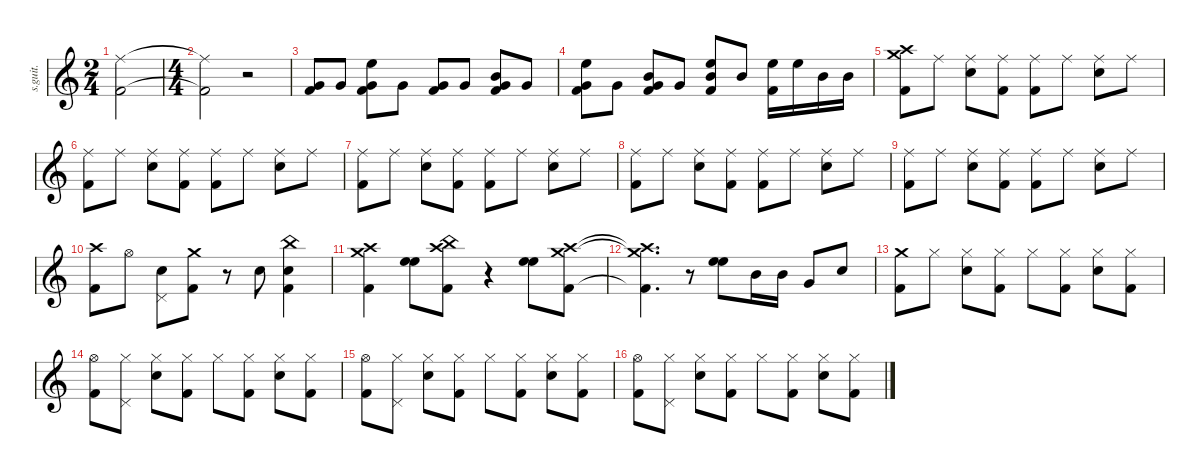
\defaultSystemsLayout 4
\hideDynamics
\bracketExtendMode nobrackets
\track ("Jim Gordon (Drums)" "s.guit.") {instrument percussion}
\staff {score}
\articulation defaults
\ts (2 4)
\beaming (8 2 2 2 2)
\tempo (107 hide)
\clef g2
\ks c
("Kick (hit) 2" "Ride (middle)").2{dy mp} |
\ts (4 4)
\beaming (8 2 2 2 2)
("Kick (hit) 2"{t} "Ride (middle)"{t}).2 r.2 |
("Very Low Tom (hit)" "Kick (hit) 2").8 "Very Low Tom (hit)".8 ("Very Low Tom (hit)" "High Floor Tom (hit)" "Kick (hit) 2").8 "Very Low Tom (hit)".8 ("Very Low Tom (hit)" "Kick (hit) 2").8 "Very Low Tom (hit)".8 ("Very Low Tom (hit)" "Mid Tom (hit)" "Kick (hit) 2").8 "Very Low Tom (hit)".8 |
("Very Low Tom (hit)" "High Floor Tom (hit)" "Kick (hit) 2").8 "Very Low Tom (hit)".8 ("Very Low Tom (hit)" "Mid Tom (hit)" "Kick (hit) 2").8 "Very Low Tom (hit)".8 ("Mid Tom (hit)" "High Floor Tom (hit)" "Kick (hit) 2").8 "Mid Tom (hit)".8 ("High Floor Tom (hit)" "Kick (hit) 2").16 "High Floor Tom (hit)".16 "Mid Tom (hit)".16 "Mid Tom (hit)".16 |
("Crash high (hit)" "Crash medium (hit)" "Kick (hit) 2").8 "Ride (middle)".8 ("Snare (hit) 2" "Ride (middle)").8 ("Kick (hit) 2" "Ride (middle)").8 ("Ride (middle)" "Kick (hit) 2").8 "Ride (middle)".8 ("Snare (hit) 2" "Ride (middle)").8 "Ride (middle)".8 |
("Ride (middle)" "Kick (hit) 2").8 "Ride (middle)".8 ("Snare (hit) 2" "Ride (middle)").8 ("Kick (hit) 2" "Ride (middle)").8 ("Ride (middle)" "Kick (hit) 2").8 "Ride (middle)".8 ("Snare (hit) 2" "Ride (middle)").8 "Ride (middle)".8 |
("Ride (middle)" "Kick (hit) 2").8 "Ride (middle)".8 ("Snare (hit) 2" "Ride (middle)").8 ("Kick (hit) 2" "Ride (middle)").8 ("Ride (middle)" "Kick (hit) 2").8 "Ride (middle)".8 ("Snare (hit) 2" "Ride (middle)").8 "Ride (middle)".8 |
("Ride (middle)" "Kick (hit) 2").8 "Ride (middle)".8 ("Snare (hit) 2" "Ride (middle)").8 ("Kick (hit) 2" "Ride (middle)").8 ("Ride (middle)" "Kick (hit) 2").8 "Ride (middle)".8 ("Snare (hit) 2" "Ride (middle)").8 "Ride (middle)".8 |
("Ride (middle)" "Kick (hit) 2").8 "Ride (middle)".8 ("Snare (hit) 2" "Ride (middle)").8 ("Kick (hit) 2" "Ride (middle)").8 ("Ride (middle)" "Kick (hit) 2").8 "Ride (middle)".8 ("Snare (hit) 2" "Ride (middle)").8 "Ride (middle)".8 |
("Crash high (hit)" "Kick (hit) 2").8 "Hi-Hat (open)".8 ("Snare (hit) 2" "Pedal Hi-Hat (hit)").8 ("Kick (hit) 2" "Crash medium (hit)").8 r.8 "Snare (hit) 2".8 ("Kick (hit) 2" "Snare (hit) 2" "China (hit)").4 |
("Crash high (hit)" "Crash medium (hit)" "Kick (hit) 2").4 ("High Floor Tom (hit)" "High Floor Tom (hit)").8 ("Kick (hit) 2" "Crash high (hit)" "China (hit)").8 r.4 ("High Floor Tom (hit)" "High Floor Tom (hit)").8 ("Kick (hit) 2" "Crash high (hit)" "Crash medium (hit)").8 |
("Kick (hit) 2"{t} "Crash high (hit)"{t} "Crash medium (hit)"{t}).4{d} r.8 ("High Floor Tom (hit)" "High Floor Tom (hit)").8 "Mid Tom (hit)".16 "Mid Tom (hit)".16 "Very Low Tom (hit)".8 "Snare (hit) 2".8 |
("Crash medium (hit)" "Kick (hit) 2").8 "Hi-Hat (closed)".8 ("Snare (hit) 2" "Hi-Hat (closed)").8 ("Kick (hit) 2" "Hi-Hat (closed)").8 "Hi-Hat (closed)".8 ("Hi-Hat (closed)" "Kick (hit) 2").8 ("Snare (hit) 2" "Hi-Hat (closed)").8 ("Kick (hit) 2" "Hi-Hat (closed)").8 |
("Kick (hit) 2" "Hi-Hat (open)").8 ("Hi-Hat (closed)" "Pedal Hi-Hat (hit)").8 ("Snare (hit) 2" "Hi-Hat (closed)").8 ("Kick (hit) 2" "Hi-Hat (closed)").8 "Hi-Hat (closed)".8 ("Hi-Hat (closed)" "Kick (hit) 2").8 ("Snare (hit) 2" "Hi-Hat (closed)").8 ("Kick (hit) 2" "Hi-Hat (closed)").8 |
("Kick (hit) 2" "Hi-Hat (open)").8 ("Hi-Hat (closed)" "Pedal Hi-Hat (hit)").8 ("Snare (hit) 2" "Hi-Hat (closed)").8 ("Kick (hit) 2" "Hi-Hat (closed)").8 "Hi-Hat (closed)".8 ("Hi-Hat (closed)" "Kick (hit) 2").8 ("Hi-Hat (closed)" "Snare (hit) 2").8 ("Kick (hit) 2" "Hi-Hat (closed)").8 |
("Kick (hit) 2" "Hi-Hat (open)").8 ("Hi-Hat (closed)" "Pedal Hi-Hat (hit)").8 ("Snare (hit) 2" "Hi-Hat (closed)").8 ("Hi-Hat (closed)" "Kick (hit) 2").8 "Hi-Hat (closed)".8 ("Hi-Hat (closed)" "Kick (hit) 2").8 ("Snare (hit) 2" "Hi-Hat (closed)").8 ("Kick (hit) 2" "Hi-Hat (closed)").8
